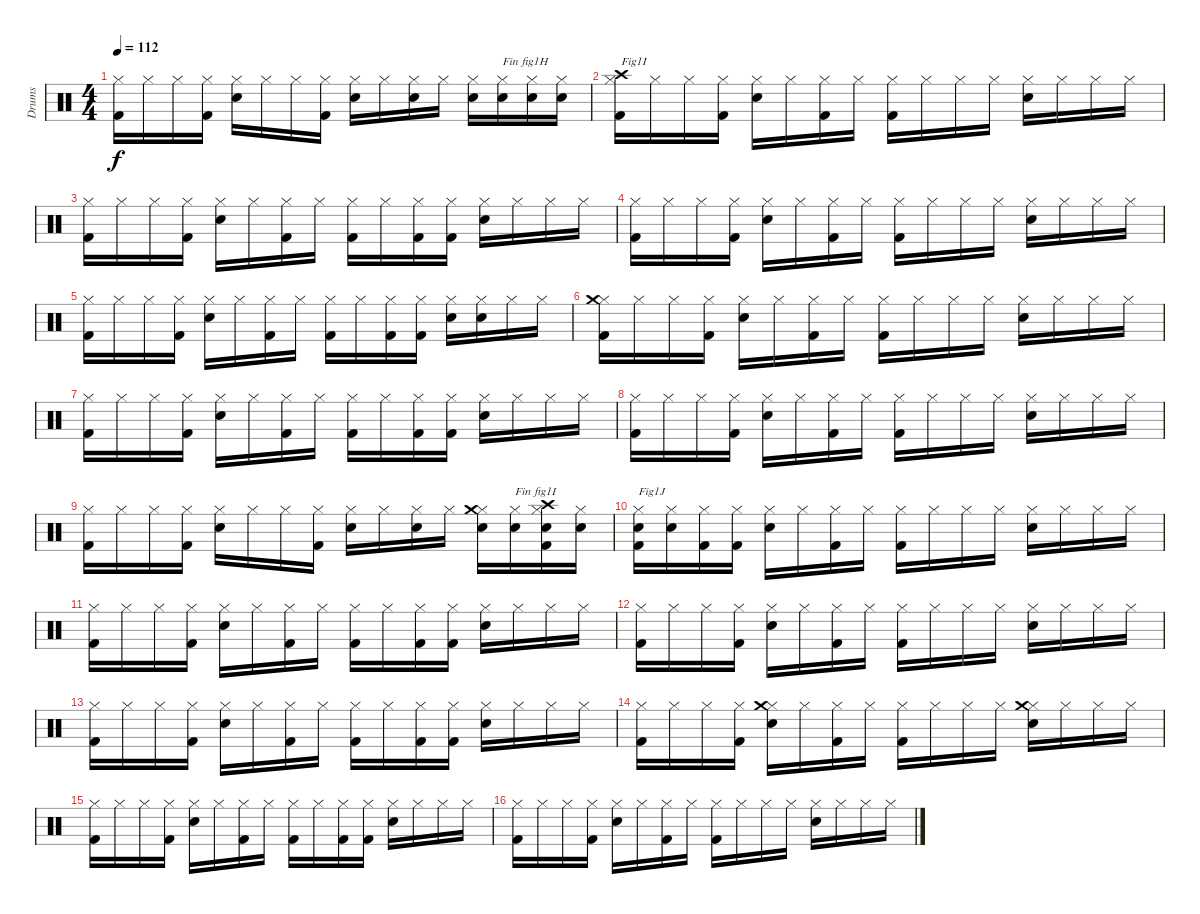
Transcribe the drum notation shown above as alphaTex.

\track ("Drums" "Drums") {instrument percussion}
\staff {score}
\articulation defaults
\ts (4 4)
\tempo 112
\clef neutral
\ks c
("Kick (hit) 2" "Hi-Hat (closed)").16{dy f} "Hi-Hat (closed)".16 "Hi-Hat (closed)".16 ("Kick (hit) 2" "Hi-Hat (closed)").16 ("Electric Snare (hit)" "Hi-Hat (closed)").16 "Hi-Hat (closed)".16 "Hi-Hat (closed)".16 ("Kick (hit) 2" "Hi-Hat (closed)").16 ("Electric Snare (hit)" "Hi-Hat (closed)").16 "Hi-Hat (closed)".16 ("Electric Snare (hit)" "Hi-Hat (closed)").16 "Hi-Hat (closed)".16 ("Electric Snare (hit)" "Hi-Hat (closed)").16 ("Electric Snare (hit)" "Hi-Hat (closed)").16{txt "Fin fig1H"} ("Electric Snare (hit)" "Hi-Hat (closed)").16 ("Electric Snare (hit)" "Hi-Hat (closed)").16 |
("Kick (hit) 2" "Hi-Hat (closed)" "Crash high (hit)").16{txt "Fig1I"} "Hi-Hat (closed)".16 "Hi-Hat (closed)".16 ("Kick (hit) 2" "Hi-Hat (closed)").16 ("Electric Snare (hit)" "Hi-Hat (closed)").16 "Hi-Hat (closed)".16 ("Kick (hit) 2" "Hi-Hat (closed)").16 "Hi-Hat (closed)".16 ("Kick (hit) 2" "Hi-Hat (closed)").16 "Hi-Hat (closed)".16 "Hi-Hat (closed)".16 "Hi-Hat (closed)".16 ("Electric Snare (hit)" "Hi-Hat (closed)").16 "Hi-Hat (closed)".16 "Hi-Hat (closed)".16 "Hi-Hat (closed)".16 |
("Kick (hit) 2" "Hi-Hat (closed)").16 "Hi-Hat (closed)".16 "Hi-Hat (closed)".16 ("Kick (hit) 2" "Hi-Hat (closed)").16 ("Electric Snare (hit)" "Hi-Hat (closed)").16 "Hi-Hat (closed)".16 ("Kick (hit) 2" "Hi-Hat (closed)").16 "Hi-Hat (closed)".16 ("Kick (hit) 2" "Hi-Hat (closed)").16 "Hi-Hat (closed)".16 ("Kick (hit) 2" "Hi-Hat (closed)").16 ("Kick (hit) 2" "Hi-Hat (closed)").16 ("Electric Snare (hit)" "Hi-Hat (closed)").16 "Hi-Hat (closed)".16 "Hi-Hat (closed)".16 "Hi-Hat (closed)".16 |
("Kick (hit) 2" "Hi-Hat (closed)").16 "Hi-Hat (closed)".16 "Hi-Hat (closed)".16 ("Kick (hit) 2" "Hi-Hat (closed)").16 ("Electric Snare (hit)" "Hi-Hat (closed)").16 "Hi-Hat (closed)".16 ("Kick (hit) 2" "Hi-Hat (closed)").16 "Hi-Hat (closed)".16 ("Kick (hit) 2" "Hi-Hat (closed)").16 "Hi-Hat (closed)".16 "Hi-Hat (closed)".16 "Hi-Hat (closed)".16 ("Electric Snare (hit)" "Hi-Hat (closed)").16 "Hi-Hat (closed)".16 "Hi-Hat (closed)".16 "Hi-Hat (closed)".16 |
("Kick (hit) 2" "Hi-Hat (closed)").16 "Hi-Hat (closed)".16 "Hi-Hat (closed)".16 ("Kick (hit) 2" "Hi-Hat (closed)").16 ("Electric Snare (hit)" "Hi-Hat (closed)").16 "Hi-Hat (closed)".16 ("Kick (hit) 2" "Hi-Hat (closed)").16 "Hi-Hat (closed)".16 ("Kick (hit) 2" "Hi-Hat (closed)").16 "Hi-Hat (closed)".16 ("Kick (hit) 2" "Hi-Hat (closed)").16 ("Kick (hit) 2" "Hi-Hat (closed)").16 ("Electric Snare (hit)" "Hi-Hat (closed)").16 ("Electric Snare (hit)" "Hi-Hat (closed)").16 "Hi-Hat (closed)".16 "Hi-Hat (closed)".16 |
("Kick (hit) 2" "Hi-Hat (closed)" "Crash medium (hit)").16 "Hi-Hat (closed)".16 "Hi-Hat (closed)".16 ("Kick (hit) 2" "Hi-Hat (closed)").16 ("Electric Snare (hit)" "Hi-Hat (closed)").16 "Hi-Hat (closed)".16 ("Kick (hit) 2" "Hi-Hat (closed)").16 "Hi-Hat (closed)".16 ("Kick (hit) 2" "Hi-Hat (closed)").16 "Hi-Hat (closed)".16 "Hi-Hat (closed)".16 "Hi-Hat (closed)".16 ("Electric Snare (hit)" "Hi-Hat (closed)").16 "Hi-Hat (closed)".16 "Hi-Hat (closed)".16 "Hi-Hat (closed)".16 |
("Kick (hit) 2" "Hi-Hat (closed)").16 "Hi-Hat (closed)".16 "Hi-Hat (closed)".16 ("Kick (hit) 2" "Hi-Hat (closed)").16 ("Electric Snare (hit)" "Hi-Hat (closed)").16 "Hi-Hat (closed)".16 ("Kick (hit) 2" "Hi-Hat (closed)").16 "Hi-Hat (closed)".16 ("Kick (hit) 2" "Hi-Hat (closed)").16 "Hi-Hat (closed)".16 ("Kick (hit) 2" "Hi-Hat (closed)").16 ("Kick (hit) 2" "Hi-Hat (closed)").16 ("Electric Snare (hit)" "Hi-Hat (closed)").16 "Hi-Hat (closed)".16 "Hi-Hat (closed)".16 "Hi-Hat (closed)".16 |
("Kick (hit) 2" "Hi-Hat (closed)").16 "Hi-Hat (closed)".16 "Hi-Hat (closed)".16 ("Kick (hit) 2" "Hi-Hat (closed)").16 ("Electric Snare (hit)" "Hi-Hat (closed)").16 "Hi-Hat (closed)".16 ("Kick (hit) 2" "Hi-Hat (closed)").16 "Hi-Hat (closed)".16 ("Kick (hit) 2" "Hi-Hat (closed)").16 "Hi-Hat (closed)".16 "Hi-Hat (closed)".16 "Hi-Hat (closed)".16 ("Electric Snare (hit)" "Hi-Hat (closed)").16 "Hi-Hat (closed)".16 "Hi-Hat (closed)".16 "Hi-Hat (closed)".16 |
("Kick (hit) 2" "Hi-Hat (closed)").16 "Hi-Hat (closed)".16 "Hi-Hat (closed)".16 ("Kick (hit) 2" "Hi-Hat (closed)").16 ("Electric Snare (hit)" "Hi-Hat (closed)").16 "Hi-Hat (closed)".16 "Hi-Hat (closed)".16 ("Kick (hit) 2" "Hi-Hat (closed)").16 ("Electric Snare (hit)" "Hi-Hat (closed)").16 "Hi-Hat (closed)".16 ("Electric Snare (hit)" "Hi-Hat (closed)").16 "Hi-Hat (closed)".16 ("Electric Snare (hit)" "Hi-Hat (closed)" "Crash medium (hit)").16 ("Electric Snare (hit)" "Hi-Hat (closed)").16{txt "Fin fig1I"} ("Kick (hit) 2" "Electric Snare (hit)" "Hi-Hat (closed)" "Crash high (hit)").16 ("Electric Snare (hit)" "Hi-Hat (closed)").16 |
("Kick (hit) 2" "Electric Snare (hit)" "Hi-Hat (closed)").16{txt "Fig1J"} ("Electric Snare (hit)" "Hi-Hat (closed)").16 ("Kick (hit) 2" "Hi-Hat (closed)").16 ("Kick (hit) 2" "Hi-Hat (closed)").16 ("Electric Snare (hit)" "Hi-Hat (closed)").16 "Hi-Hat (closed)".16 ("Kick (hit) 2" "Hi-Hat (closed)").16 "Hi-Hat (closed)".16 ("Kick (hit) 2" "Hi-Hat (closed)").16 "Hi-Hat (closed)".16 "Hi-Hat (closed)".16 "Hi-Hat (closed)".16 ("Electric Snare (hit)" "Hi-Hat (closed)").16 "Hi-Hat (closed)".16 "Hi-Hat (closed)".16 "Hi-Hat (closed)".16 |
("Kick (hit) 2" "Hi-Hat (closed)").16 "Hi-Hat (closed)".16 "Hi-Hat (closed)".16 ("Kick (hit) 2" "Hi-Hat (closed)").16 ("Electric Snare (hit)" "Hi-Hat (closed)").16 "Hi-Hat (closed)".16 ("Kick (hit) 2" "Hi-Hat (closed)").16 "Hi-Hat (closed)".16 ("Kick (hit) 2" "Hi-Hat (closed)").16 "Hi-Hat (closed)".16 ("Kick (hit) 2" "Hi-Hat (closed)").16 ("Kick (hit) 2" "Hi-Hat (closed)").16 ("Electric Snare (hit)" "Hi-Hat (closed)").16 "Hi-Hat (closed)".16 "Hi-Hat (closed)".16 "Hi-Hat (closed)".16 |
("Kick (hit) 2" "Hi-Hat (closed)").16 "Hi-Hat (closed)".16 "Hi-Hat (closed)".16 ("Kick (hit) 2" "Hi-Hat (closed)").16 ("Electric Snare (hit)" "Hi-Hat (closed)").16 "Hi-Hat (closed)".16 ("Kick (hit) 2" "Hi-Hat (closed)").16 "Hi-Hat (closed)".16 ("Kick (hit) 2" "Hi-Hat (closed)").16 "Hi-Hat (closed)".16 "Hi-Hat (closed)".16 "Hi-Hat (closed)".16 ("Electric Snare (hit)" "Hi-Hat (closed)").16 "Hi-Hat (closed)".16 "Hi-Hat (closed)".16 "Hi-Hat (closed)".16 |
("Kick (hit) 2" "Hi-Hat (closed)").16 "Hi-Hat (closed)".16 "Hi-Hat (closed)".16 ("Kick (hit) 2" "Hi-Hat (closed)").16 ("Electric Snare (hit)" "Hi-Hat (closed)").16 "Hi-Hat (closed)".16 ("Kick (hit) 2" "Hi-Hat (closed)").16 "Hi-Hat (closed)".16 ("Kick (hit) 2" "Hi-Hat (closed)").16 "Hi-Hat (closed)".16 ("Kick (hit) 2" "Hi-Hat (closed)").16 ("Kick (hit) 2" "Hi-Hat (closed)").16 ("Electric Snare (hit)" "Hi-Hat (closed)").16 "Hi-Hat (closed)".16 "Hi-Hat (closed)".16 "Hi-Hat (closed)".16 |
("Kick (hit) 2" "Hi-Hat (closed)").16 "Hi-Hat (closed)".16 "Hi-Hat (closed)".16 ("Kick (hit) 2" "Hi-Hat (closed)").16 ("Electric Snare (hit)" "Hi-Hat (closed)" "Crash medium (hit)").16 "Hi-Hat (closed)".16 ("Kick (hit) 2" "Hi-Hat (closed)").16 "Hi-Hat (closed)".16 ("Kick (hit) 2" "Hi-Hat (closed)").16 "Hi-Hat (closed)".16 "Hi-Hat (closed)".16 "Hi-Hat (closed)".16 ("Electric Snare (hit)" "Hi-Hat (closed)" "Crash medium (hit)").16 "Hi-Hat (closed)".16 "Hi-Hat (closed)".16 "Hi-Hat (closed)".16 |
("Kick (hit) 2" "Hi-Hat (closed)").16 "Hi-Hat (closed)".16 "Hi-Hat (closed)".16 ("Kick (hit) 2" "Hi-Hat (closed)").16 ("Electric Snare (hit)" "Hi-Hat (closed)").16 "Hi-Hat (closed)".16 ("Kick (hit) 2" "Hi-Hat (closed)").16 "Hi-Hat (closed)".16 ("Kick (hit) 2" "Hi-Hat (closed)").16 "Hi-Hat (closed)".16 ("Kick (hit) 2" "Hi-Hat (closed)").16 ("Kick (hit) 2" "Hi-Hat (closed)").16 ("Electric Snare (hit)" "Hi-Hat (closed)").16 "Hi-Hat (closed)".16 "Hi-Hat (closed)".16 "Hi-Hat (closed)".16 |
("Kick (hit) 2" "Hi-Hat (closed)").16 "Hi-Hat (closed)".16 "Hi-Hat (closed)".16 ("Kick (hit) 2" "Hi-Hat (closed)").16 ("Electric Snare (hit)" "Hi-Hat (closed)").16 "Hi-Hat (closed)".16 ("Kick (hit) 2" "Hi-Hat (closed)").16 "Hi-Hat (closed)".16 ("Kick (hit) 2" "Hi-Hat (closed)").16 "Hi-Hat (closed)".16 "Hi-Hat (closed)".16 "Hi-Hat (closed)".16 ("Electric Snare (hit)" "Hi-Hat (closed)").16 "Hi-Hat (closed)".16 "Hi-Hat (closed)".16 "Hi-Hat (closed)".16
